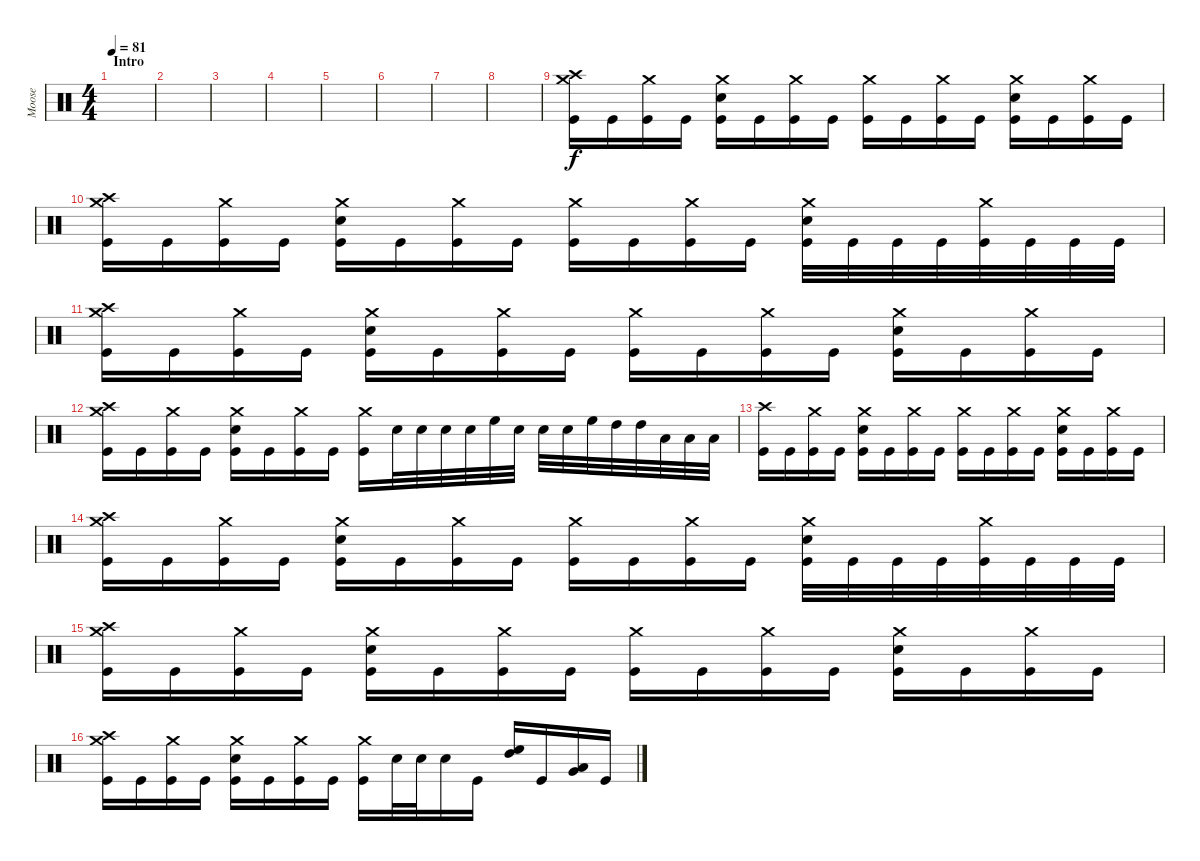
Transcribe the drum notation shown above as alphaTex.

\track ("Moose" "Moose") {instrument percussion}
\staff {score}
\articulation defaults
\ts (4 4)
\section ("" "Intro")
\tempo 81
\clef neutral
\ks c
|
|
|
|
|
|
|
|
("Crash high (hit)" "Crash medium (hit)" "Kick (hit)").16 "Kick (hit)".16 ("Crash medium (hit)" "Kick (hit)").16 "Kick (hit)".16 ("Crash medium (hit)" "Electric Snare (hit)" "Kick (hit)").16 "Kick (hit)".16 ("Crash medium (hit)" "Kick (hit)").16 "Kick (hit)".16 ("Crash medium (hit)" "Kick (hit)").16 "Kick (hit)".16 ("Crash medium (hit)" "Kick (hit)").16 "Kick (hit)".16 ("Crash medium (hit)" "Electric Snare (hit)" "Kick (hit)").16 "Kick (hit)".16 ("Crash medium (hit)" "Kick (hit)").16 "Kick (hit)".16 |
("Crash high (hit)" "Crash medium (hit)" "Kick (hit)").16 "Kick (hit)".16 ("Crash medium (hit)" "Kick (hit)").16 "Kick (hit)".16 ("Crash medium (hit)" "Electric Snare (hit)" "Kick (hit)").16 "Kick (hit)".16 ("Crash medium (hit)" "Kick (hit)").16 "Kick (hit)".16 ("Crash medium (hit)" "Kick (hit)").16 "Kick (hit)".16 ("Crash medium (hit)" "Kick (hit)").16 "Kick (hit)".16 ("Crash medium (hit)" "Electric Snare (hit)" "Kick (hit)").32 "Kick (hit)".32 "Kick (hit)".32 "Kick (hit)".32 ("Crash medium (hit)" "Kick (hit)").32 "Kick (hit)".32 "Kick (hit)".32 "Kick (hit)".32 |
("Crash high (hit)" "Crash medium (hit)" "Kick (hit)").16 "Kick (hit)".16 ("Crash medium (hit)" "Kick (hit)").16 "Kick (hit)".16 ("Crash medium (hit)" "Electric Snare (hit)" "Kick (hit)").16 "Kick (hit)".16 ("Crash medium (hit)" "Kick (hit)").16 "Kick (hit)".16 ("Crash medium (hit)" "Kick (hit)").16 "Kick (hit)".16 ("Crash medium (hit)" "Kick (hit)").16 "Kick (hit)".16 ("Crash medium (hit)" "Electric Snare (hit)" "Kick (hit)").16 "Kick (hit)".16 ("Crash medium (hit)" "Kick (hit)").16 "Kick (hit)".16 |
("Crash high (hit)" "Crash medium (hit)" "Kick (hit)").16 "Kick (hit)".16 ("Crash medium (hit)" "Kick (hit)").16 "Kick (hit)".16 ("Crash medium (hit)" "Electric Snare (hit)" "Kick (hit)").16 "Kick (hit)".16 ("Crash medium (hit)" "Kick (hit)").16 "Kick (hit)".16 ("Crash medium (hit)" "Kick (hit)").16 "Electric Snare (hit)".32 "Electric Snare (hit)".32 "Electric Snare (hit)".32 "Electric Snare (hit)".32 "High Floor Tom (hit)".32 "Electric Snare (hit)".32 "Electric Snare (hit)".32 "Electric Snare (hit)".32 "High Floor Tom (hit)".32 "High Tom (hit)".32 "High Tom (hit)".32 "Low Tom (hit)".32 "Low Tom (hit)".32 "Low Tom (hit)".32 |
("Crash high (hit)" "Kick (hit)").16 "Kick (hit)".16 ("Crash medium (hit)" "Kick (hit)").16 "Kick (hit)".16 ("Crash medium (hit)" "Electric Snare (hit)" "Kick (hit)").16 "Kick (hit)".16 ("Crash medium (hit)" "Kick (hit)").16 "Kick (hit)".16 ("Crash medium (hit)" "Kick (hit)").16 "Kick (hit)".16 ("Crash medium (hit)" "Kick (hit)").16 "Kick (hit)".16 ("Crash medium (hit)" "Electric Snare (hit)" "Kick (hit)").16 "Kick (hit)".16 ("Crash medium (hit)" "Kick (hit)").16 "Kick (hit)".16 |
("Crash high (hit)" "Crash medium (hit)" "Kick (hit)").16 "Kick (hit)".16 ("Crash medium (hit)" "Kick (hit)").16 "Kick (hit)".16 ("Crash medium (hit)" "Electric Snare (hit)" "Kick (hit)").16 "Kick (hit)".16 ("Crash medium (hit)" "Kick (hit)").16 "Kick (hit)".16 ("Crash medium (hit)" "Kick (hit)").16 "Kick (hit)".16 ("Crash medium (hit)" "Kick (hit)").16 "Kick (hit)".16 ("Crash medium (hit)" "Electric Snare (hit)" "Kick (hit)").32 "Kick (hit)".32 "Kick (hit)".32 "Kick (hit)".32 ("Crash medium (hit)" "Kick (hit)").32 "Kick (hit)".32 "Kick (hit)".32 "Kick (hit)".32 |
("Crash high (hit)" "Crash medium (hit)" "Kick (hit)").16 "Kick (hit)".16 ("Crash medium (hit)" "Kick (hit)").16 "Kick (hit)".16 ("Crash medium (hit)" "Electric Snare (hit)" "Kick (hit)").16 "Kick (hit)".16 ("Crash medium (hit)" "Kick (hit)").16 "Kick (hit)".16 ("Crash medium (hit)" "Kick (hit)").16 "Kick (hit)".16 ("Crash medium (hit)" "Kick (hit)").16 "Kick (hit)".16 ("Crash medium (hit)" "Electric Snare (hit)" "Kick (hit)").16 "Kick (hit)".16 ("Crash medium (hit)" "Kick (hit)").16 "Kick (hit)".16 |
("Crash high (hit)" "Crash medium (hit)" "Kick (hit)").16 "Kick (hit)".16 ("Crash medium (hit)" "Kick (hit)").16 "Kick (hit)".16 ("Crash medium (hit)" "Electric Snare (hit)" "Kick (hit)").16 "Kick (hit)".16 ("Crash medium (hit)" "Kick (hit)").16 "Kick (hit)".16 ("Crash medium (hit)" "Kick (hit)").16 "Electric Snare (hit)".32 "Electric Snare (hit)".32 "Electric Snare (hit)".16 "Kick (hit)".16 ("High Floor Tom (hit)" "High Tom (hit)").16{bd 60} "Kick (hit)".16 ("Low Tom (hit)" "Very Low Tom (hit)").16{bd 60} "Kick (hit)".16
